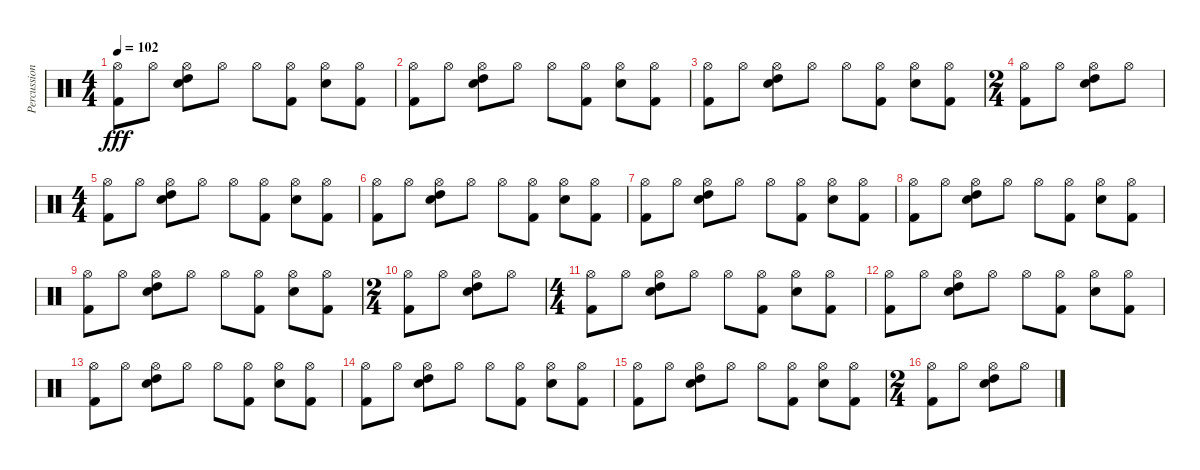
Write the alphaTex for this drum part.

\track ("Percussions" "Percussion") {instrument percussion}
\staff {score}
\articulation defaults
\ts (4 4)
\tempo 102
\clef neutral
\ks c
("Hi-Hat (open)" "Kick (hit) 2").8{dy fff} "Hi-Hat (open)".8 ("Hi-Hat (open)" "High Tom (hit)" "Electric Snare (hit)").8 "Hi-Hat (open)".8 "Hi-Hat (open)".8 ("Hi-Hat (open)" "Kick (hit) 2").8 ("Hi-Hat (open)" "Electric Snare (hit)").8 ("Hi-Hat (open)" "Kick (hit) 2").8 |
("Hi-Hat (open)" "Kick (hit) 2").8 "Hi-Hat (open)".8 ("Hi-Hat (open)" "High Tom (hit)" "Electric Snare (hit)").8 "Hi-Hat (open)".8 "Hi-Hat (open)".8 ("Hi-Hat (open)" "Kick (hit) 2").8 ("Hi-Hat (open)" "Electric Snare (hit)").8 ("Hi-Hat (open)" "Kick (hit) 2").8 |
("Hi-Hat (open)" "Kick (hit) 2").8 "Hi-Hat (open)".8 ("Hi-Hat (open)" "High Tom (hit)" "Electric Snare (hit)").8 "Hi-Hat (open)".8 "Hi-Hat (open)".8 ("Hi-Hat (open)" "Kick (hit) 2").8 ("Hi-Hat (open)" "Electric Snare (hit)").8 ("Hi-Hat (open)" "Kick (hit) 2").8 |
\ts (2 4)
("Hi-Hat (open)" "Kick (hit) 2").8 "Hi-Hat (open)".8 ("Hi-Hat (open)" "High Tom (hit)" "Electric Snare (hit)").8 "Hi-Hat (open)".8 |
\ts (4 4)
("Hi-Hat (open)" "Kick (hit) 2").8 "Hi-Hat (open)".8 ("Hi-Hat (open)" "High Tom (hit)" "Electric Snare (hit)").8 "Hi-Hat (open)".8 "Hi-Hat (open)".8 ("Hi-Hat (open)" "Kick (hit) 2").8 ("Hi-Hat (open)" "Electric Snare (hit)").8 ("Hi-Hat (open)" "Kick (hit) 2").8 |
("Hi-Hat (open)" "Kick (hit) 2").8 "Hi-Hat (open)".8 ("Hi-Hat (open)" "High Tom (hit)" "Electric Snare (hit)").8 "Hi-Hat (open)".8 "Hi-Hat (open)".8 ("Hi-Hat (open)" "Kick (hit) 2").8 ("Hi-Hat (open)" "Electric Snare (hit)").8 ("Hi-Hat (open)" "Kick (hit) 2").8 |
("Hi-Hat (open)" "Kick (hit) 2").8 "Hi-Hat (open)".8 ("Hi-Hat (open)" "High Tom (hit)" "Electric Snare (hit)").8 "Hi-Hat (open)".8 "Hi-Hat (open)".8 ("Hi-Hat (open)" "Kick (hit) 2").8 ("Hi-Hat (open)" "Electric Snare (hit)").8 ("Hi-Hat (open)" "Kick (hit) 2").8 |
("Hi-Hat (open)" "Kick (hit) 2").8 "Hi-Hat (open)".8 ("Hi-Hat (open)" "High Tom (hit)" "Electric Snare (hit)").8 "Hi-Hat (open)".8 "Hi-Hat (open)".8 ("Hi-Hat (open)" "Kick (hit) 2").8 ("Hi-Hat (open)" "Electric Snare (hit)").8 ("Hi-Hat (open)" "Kick (hit) 2").8 |
("Hi-Hat (open)" "Kick (hit) 2").8 "Hi-Hat (open)".8 ("Hi-Hat (open)" "High Tom (hit)" "Electric Snare (hit)").8 "Hi-Hat (open)".8 "Hi-Hat (open)".8 ("Hi-Hat (open)" "Kick (hit) 2").8 ("Hi-Hat (open)" "Electric Snare (hit)").8 ("Hi-Hat (open)" "Kick (hit) 2").8 |
\ts (2 4)
("Hi-Hat (open)" "Kick (hit) 2").8 "Hi-Hat (open)".8 ("Hi-Hat (open)" "High Tom (hit)" "Electric Snare (hit)").8 "Hi-Hat (open)".8 |
\ts (4 4)
("Hi-Hat (open)" "Kick (hit) 2").8 "Hi-Hat (open)".8 ("Hi-Hat (open)" "High Tom (hit)" "Electric Snare (hit)").8 "Hi-Hat (open)".8 "Hi-Hat (open)".8 ("Hi-Hat (open)" "Kick (hit) 2").8 ("Hi-Hat (open)" "Electric Snare (hit)").8 ("Hi-Hat (open)" "Kick (hit) 2").8 |
("Hi-Hat (open)" "Kick (hit) 2").8 "Hi-Hat (open)".8 ("Hi-Hat (open)" "High Tom (hit)" "Electric Snare (hit)").8 "Hi-Hat (open)".8 "Hi-Hat (open)".8 ("Hi-Hat (open)" "Kick (hit) 2").8 ("Hi-Hat (open)" "Electric Snare (hit)").8 ("Hi-Hat (open)" "Kick (hit) 2").8 |
("Hi-Hat (open)" "Kick (hit) 2").8 "Hi-Hat (open)".8 ("Hi-Hat (open)" "High Tom (hit)" "Electric Snare (hit)").8 "Hi-Hat (open)".8 "Hi-Hat (open)".8 ("Hi-Hat (open)" "Kick (hit) 2").8 ("Hi-Hat (open)" "Electric Snare (hit)").8 ("Hi-Hat (open)" "Kick (hit) 2").8 |
("Hi-Hat (open)" "Kick (hit) 2").8 "Hi-Hat (open)".8 ("Hi-Hat (open)" "High Tom (hit)" "Electric Snare (hit)").8 "Hi-Hat (open)".8 "Hi-Hat (open)".8 ("Hi-Hat (open)" "Kick (hit) 2").8 ("Hi-Hat (open)" "Electric Snare (hit)").8 ("Hi-Hat (open)" "Kick (hit) 2").8 |
("Hi-Hat (open)" "Kick (hit) 2").8 "Hi-Hat (open)".8 ("Hi-Hat (open)" "High Tom (hit)" "Electric Snare (hit)").8 "Hi-Hat (open)".8 "Hi-Hat (open)".8 ("Hi-Hat (open)" "Kick (hit) 2").8 ("Hi-Hat (open)" "Electric Snare (hit)").8 ("Hi-Hat (open)" "Kick (hit) 2").8 |
\ts (2 4)
("Hi-Hat (open)" "Kick (hit) 2").8 "Hi-Hat (open)".8 ("Hi-Hat (open)" "High Tom (hit)" "Electric Snare (hit)").8 "Hi-Hat (open)".8
